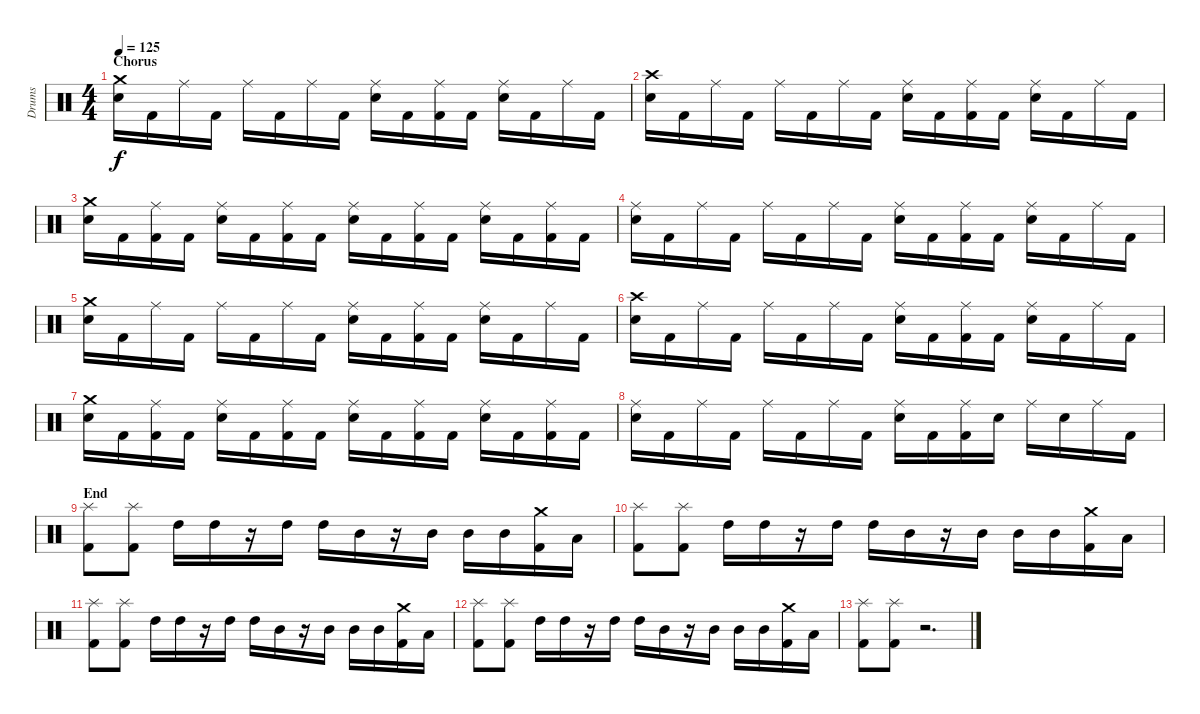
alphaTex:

\track ("Drums" "Drums") {instrument percussion}
\staff {score}
\articulation defaults
\ts (4 4)
\section ("" "Chorus")
\tempo 125
\clef neutral
\ks c
("Crash medium (hit)" "Electric Snare (hit)").16{dy f} "Kick (hit) 2".16 "Ride (middle)".16 "Kick (hit) 2".16 "Ride (middle)".16 "Kick (hit) 2".16 "Ride (middle)".16 "Kick (hit) 2".16 ("Ride (middle)" "Electric Snare (hit)").16 "Kick (hit) 2".16 ("Ride (middle)" "Kick (hit) 2").16 "Kick (hit) 2".16 ("Ride (middle)" "Electric Snare (hit)").16 "Kick (hit) 2".16 "Ride (middle)".16 "Kick (hit) 2".16 |
("Crash high (hit)" "Electric Snare (hit)").16 "Kick (hit) 2".16 "Ride (middle)".16 "Kick (hit) 2".16 "Ride (middle)".16 "Kick (hit) 2".16 "Ride (middle)".16 "Kick (hit) 2".16 ("Ride (middle)" "Electric Snare (hit)").16 "Kick (hit) 2".16 ("Ride (middle)" "Kick (hit) 2").16 "Kick (hit) 2".16 ("Ride (middle)" "Electric Snare (hit)").16 "Kick (hit) 2".16 "Ride (middle)".16 "Kick (hit) 2".16 |
("Crash medium (hit)" "Electric Snare (hit)").16 "Kick (hit) 2".16 ("Ride (middle)" "Kick (hit) 2").16 "Kick (hit) 2".16 ("Ride (middle)" "Electric Snare (hit)").16 "Kick (hit) 2".16 ("Ride (middle)" "Kick (hit) 2").16 "Kick (hit) 2".16 ("Ride (middle)" "Electric Snare (hit)").16 "Kick (hit) 2".16 ("Ride (middle)" "Kick (hit) 2").16 "Kick (hit) 2".16 ("Ride (middle)" "Electric Snare (hit)").16 "Kick (hit) 2".16 ("Ride (middle)" "Kick (hit) 2").16 "Kick (hit) 2".16 |
("Ride (middle)" "Electric Snare (hit)").16 "Kick (hit) 2".16 "Ride (middle)".16 "Kick (hit) 2".16 "Ride (middle)".16 "Kick (hit) 2".16 "Ride (middle)".16 "Kick (hit) 2".16 ("Ride (middle)" "Electric Snare (hit)").16 "Kick (hit) 2".16 ("Ride (middle)" "Kick (hit) 2").16 "Kick (hit) 2".16 ("Ride (middle)" "Electric Snare (hit)").16 "Kick (hit) 2".16 "Ride (middle)".16 "Kick (hit) 2".16 |
("Crash medium (hit)" "Electric Snare (hit)").16 "Kick (hit) 2".16 "Ride (middle)".16 "Kick (hit) 2".16 "Ride (middle)".16 "Kick (hit) 2".16 "Ride (middle)".16 "Kick (hit) 2".16 ("Ride (middle)" "Electric Snare (hit)").16 "Kick (hit) 2".16 ("Ride (middle)" "Kick (hit) 2").16 "Kick (hit) 2".16 ("Ride (middle)" "Electric Snare (hit)").16 "Kick (hit) 2".16 "Ride (middle)".16 "Kick (hit) 2".16 |
("Crash high (hit)" "Electric Snare (hit)").16 "Kick (hit) 2".16 "Ride (middle)".16 "Kick (hit) 2".16 "Ride (middle)".16 "Kick (hit) 2".16 "Ride (middle)".16 "Kick (hit) 2".16 ("Ride (middle)" "Electric Snare (hit)").16 "Kick (hit) 2".16 ("Ride (middle)" "Kick (hit) 2").16 "Kick (hit) 2".16 ("Ride (middle)" "Electric Snare (hit)").16 "Kick (hit) 2".16 "Ride (middle)".16 "Kick (hit) 2".16 |
("Crash medium (hit)" "Electric Snare (hit)").16 "Kick (hit) 2".16 ("Ride (middle)" "Kick (hit) 2").16 "Kick (hit) 2".16 ("Ride (middle)" "Electric Snare (hit)").16 "Kick (hit) 2".16 ("Ride (middle)" "Kick (hit) 2").16 "Kick (hit) 2".16 ("Ride (middle)" "Electric Snare (hit)").16 "Kick (hit) 2".16 ("Ride (middle)" "Kick (hit) 2").16 "Kick (hit) 2".16 ("Ride (middle)" "Electric Snare (hit)").16 "Kick (hit) 2".16 ("Ride (middle)" "Kick (hit) 2").16 "Kick (hit) 2".16 |
("Ride (middle)" "Electric Snare (hit)").16 "Kick (hit) 2".16 "Ride (middle)".16 "Kick (hit) 2".16 "Ride (middle)".16 "Kick (hit) 2".16 "Ride (middle)".16 "Kick (hit) 2".16 ("Ride (middle)" "Electric Snare (hit)").16 "Kick (hit) 2".16 ("Ride (middle)" "Kick (hit) 2").16 "Electric Snare (hit)".16 "Ride (middle)".16 "Electric Snare (hit)".16 "Ride (middle)".16 "Kick (hit) 2".16 |
\section ("" "End")
("Splash (hit)" "Kick (hit) 2").8 ("Splash (hit)" "Kick (hit) 2").8 "High Tom (hit)".16 "High Tom (hit)".16 r.16 "High Tom (hit)".16 "High Tom (hit)".16 "Mid Tom (hit)".16 r.16 "Mid Tom (hit)".16 "Mid Tom (hit)".16 "Mid Tom (hit)".16 ("Crash medium (hit)" "Kick (hit) 2").16 "Low Tom (hit)".16 |
("Splash (hit)" "Kick (hit) 2").8 ("Splash (hit)" "Kick (hit) 2").8 "High Tom (hit)".16 "High Tom (hit)".16 r.16 "High Tom (hit)".16 "High Tom (hit)".16 "Mid Tom (hit)".16 r.16 "Mid Tom (hit)".16 "Mid Tom (hit)".16 "Mid Tom (hit)".16 ("Crash medium (hit)" "Kick (hit) 2").16 "Low Tom (hit)".16 |
("Splash (hit)" "Kick (hit) 2").8 ("Splash (hit)" "Kick (hit) 2").8 "High Tom (hit)".16 "High Tom (hit)".16 r.16 "High Tom (hit)".16 "High Tom (hit)".16 "Mid Tom (hit)".16 r.16 "Mid Tom (hit)".16 "Mid Tom (hit)".16 "Mid Tom (hit)".16 ("Crash medium (hit)" "Kick (hit) 2").16 "Low Tom (hit)".16 |
("Splash (hit)" "Kick (hit) 2").8 ("Splash (hit)" "Kick (hit) 2").8 "High Tom (hit)".16 "High Tom (hit)".16 r.16 "High Tom (hit)".16 "High Tom (hit)".16 "Mid Tom (hit)".16 r.16 "Mid Tom (hit)".16 "Mid Tom (hit)".16 "Mid Tom (hit)".16 ("Crash medium (hit)" "Kick (hit) 2").16 "Low Tom (hit)".16 |
("Splash (hit)" "Kick (hit) 2").8 ("Splash (hit)" "Kick (hit) 2").8 r.2{d}
